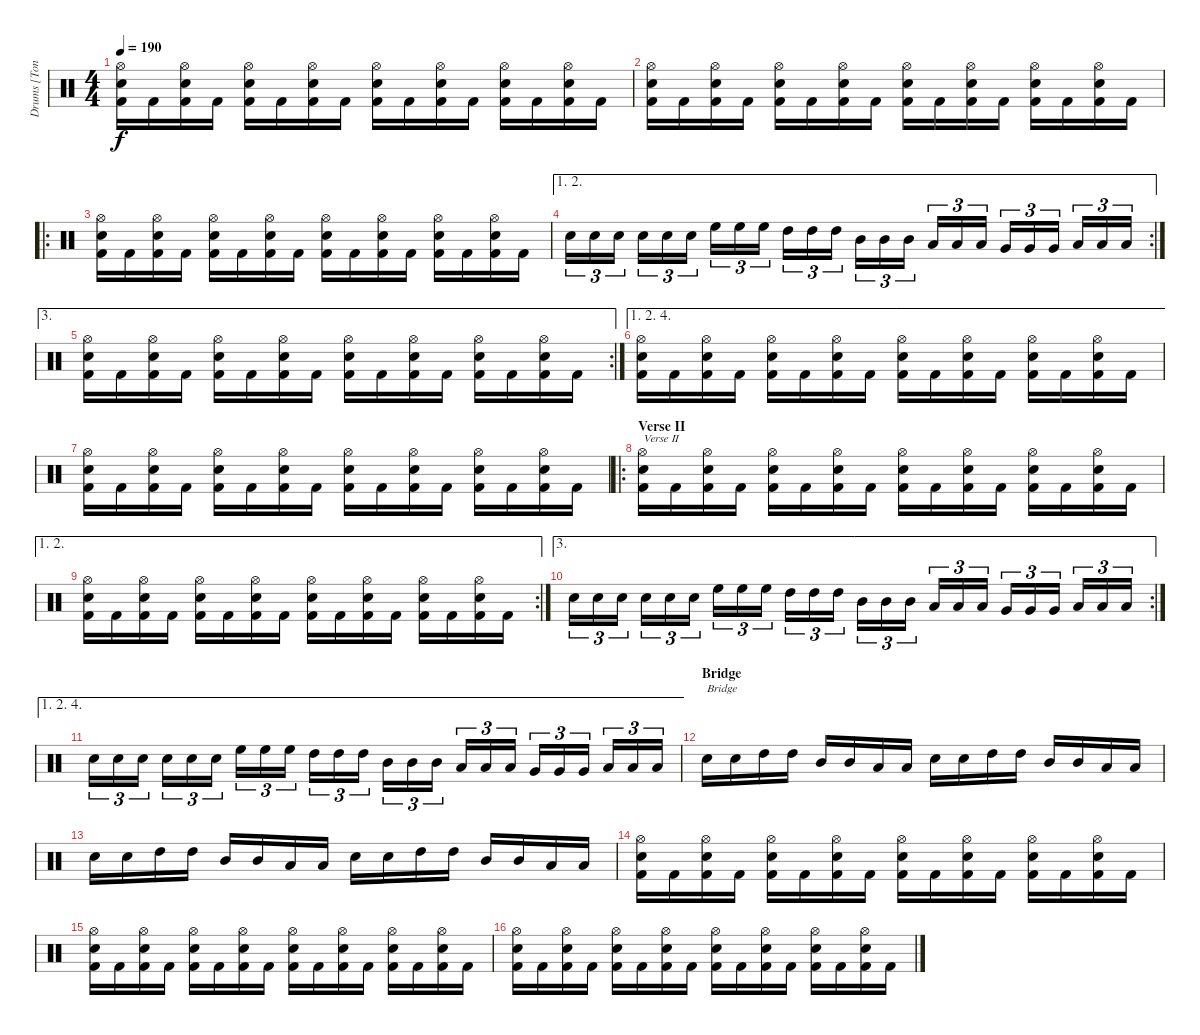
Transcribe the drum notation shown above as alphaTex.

\track ("Drums [Tony Laureano]" "Drums [Ton") {instrument percussion}
\staff {score}
\articulation defaults
\ts (4 4)
\tempo 190
\clef neutral
\ks c
("Hi-Hat (open)" "Electric Snare (hit)" "Kick (hit) 2").16{dy f} "Kick (hit) 2".16 ("Hi-Hat (open)" "Electric Snare (hit)" "Kick (hit) 2").16 "Kick (hit) 2".16 ("Hi-Hat (open)" "Electric Snare (hit)" "Kick (hit) 2").16 "Kick (hit) 2".16 ("Hi-Hat (open)" "Electric Snare (hit)" "Kick (hit) 2").16 "Kick (hit) 2".16 ("Hi-Hat (open)" "Electric Snare (hit)" "Kick (hit) 2").16 "Kick (hit) 2".16 ("Hi-Hat (open)" "Electric Snare (hit)" "Kick (hit) 2").16 "Kick (hit) 2".16 ("Hi-Hat (open)" "Electric Snare (hit)" "Kick (hit) 2").16 "Kick (hit) 2".16 ("Hi-Hat (open)" "Electric Snare (hit)" "Kick (hit) 2").16 "Kick (hit) 2".16 |
("Hi-Hat (open)" "Electric Snare (hit)" "Kick (hit) 2").16 "Kick (hit) 2".16 ("Hi-Hat (open)" "Electric Snare (hit)" "Kick (hit) 2").16 "Kick (hit) 2".16 ("Hi-Hat (open)" "Electric Snare (hit)" "Kick (hit) 2").16 "Kick (hit) 2".16 ("Hi-Hat (open)" "Electric Snare (hit)" "Kick (hit) 2").16 "Kick (hit) 2".16 ("Hi-Hat (open)" "Electric Snare (hit)" "Kick (hit) 2").16 "Kick (hit) 2".16 ("Hi-Hat (open)" "Electric Snare (hit)" "Kick (hit) 2").16 "Kick (hit) 2".16 ("Hi-Hat (open)" "Electric Snare (hit)" "Kick (hit) 2").16 "Kick (hit) 2".16 ("Hi-Hat (open)" "Electric Snare (hit)" "Kick (hit) 2").16 "Kick (hit) 2".16 |
\ro
("Hi-Hat (open)" "Electric Snare (hit)" "Kick (hit) 2").16 "Kick (hit) 2".16 ("Hi-Hat (open)" "Electric Snare (hit)" "Kick (hit) 2").16 "Kick (hit) 2".16 ("Hi-Hat (open)" "Electric Snare (hit)" "Kick (hit) 2").16 "Kick (hit) 2".16 ("Hi-Hat (open)" "Electric Snare (hit)" "Kick (hit) 2").16 "Kick (hit) 2".16 ("Hi-Hat (open)" "Electric Snare (hit)" "Kick (hit) 2").16 "Kick (hit) 2".16 ("Hi-Hat (open)" "Electric Snare (hit)" "Kick (hit) 2").16 "Kick (hit) 2".16 ("Hi-Hat (open)" "Electric Snare (hit)" "Kick (hit) 2").16 "Kick (hit) 2".16 ("Hi-Hat (open)" "Electric Snare (hit)" "Kick (hit) 2").16 "Kick (hit) 2".16 |
\ae (1 2)
\rc 2 "Electric Snare (hit)".16{tu (3 2)} "Electric Snare (hit)".16{tu (3 2)} "Electric Snare (hit)".16{tu (3 2)} "Electric Snare (hit)".16{tu (3 2)} "Electric Snare (hit)".16{tu (3 2)} "Electric Snare (hit)".16{tu (3 2)} "High Floor Tom (hit)".16{tu (3 2)} "High Floor Tom (hit)".16{tu (3 2)} "High Floor Tom (hit)".16{tu (3 2)} "High Tom (hit)".16{tu (3 2)} "High Tom (hit)".16{tu (3 2)} "High Tom (hit)".16{tu (3 2)} "Mid Tom (hit)".16{tu (3 2)} "Mid Tom (hit)".16{tu (3 2)} "Mid Tom (hit)".16{tu (3 2)} "Low Tom (hit)".16{tu (3 2)} "Low Tom (hit)".16{tu (3 2)} "Low Tom (hit)".16{tu (3 2)} "Very Low Tom (hit)".16{tu (3 2)} "Very Low Tom (hit)".16{tu (3 2)} "Very Low Tom (hit)".16{tu (3 2)} "Low Floor Tom (hit)".16{tu (3 2)} "Low Floor Tom (hit)".16{tu (3 2)} "Low Floor Tom (hit)".16{tu (3 2)}
|
\ae 3
\rc 2
("Hi-Hat (open)" "Electric Snare (hit)" "Kick (hit) 2").16 "Kick (hit) 2".16 ("Hi-Hat (open)" "Electric Snare (hit)" "Kick (hit) 2").16 "Kick (hit) 2".16 ("Hi-Hat (open)" "Electric Snare (hit)" "Kick (hit) 2").16 "Kick (hit) 2".16 ("Hi-Hat (open)" "Electric Snare (hit)" "Kick (hit) 2").16 "Kick (hit) 2".16 ("Hi-Hat (open)" "Electric Snare (hit)" "Kick (hit) 2").16 "Kick (hit) 2".16 ("Hi-Hat (open)" "Electric Snare (hit)" "Kick (hit) 2").16 "Kick (hit) 2".16 ("Hi-Hat (open)" "Electric Snare (hit)" "Kick (hit) 2").16 "Kick (hit) 2".16 ("Hi-Hat (open)" "Electric Snare (hit)" "Kick (hit) 2").16 "Kick (hit) 2".16 |
\ae (1 2 4)
("Hi-Hat (open)" "Electric Snare (hit)" "Kick (hit) 2").16 "Kick (hit) 2".16 ("Hi-Hat (open)" "Electric Snare (hit)" "Kick (hit) 2").16 "Kick (hit) 2".16 ("Hi-Hat (open)" "Electric Snare (hit)" "Kick (hit) 2").16 "Kick (hit) 2".16 ("Hi-Hat (open)" "Electric Snare (hit)" "Kick (hit) 2").16 "Kick (hit) 2".16 ("Hi-Hat (open)" "Electric Snare (hit)" "Kick (hit) 2").16 "Kick (hit) 2".16 ("Hi-Hat (open)" "Electric Snare (hit)" "Kick (hit) 2").16 "Kick (hit) 2".16 ("Hi-Hat (open)" "Electric Snare (hit)" "Kick (hit) 2").16 "Kick (hit) 2".16 ("Hi-Hat (open)" "Electric Snare (hit)" "Kick (hit) 2").16 "Kick (hit) 2".16 |
("Hi-Hat (open)" "Electric Snare (hit)" "Kick (hit) 2").16 "Kick (hit) 2".16 ("Hi-Hat (open)" "Electric Snare (hit)" "Kick (hit) 2").16 "Kick (hit) 2".16 ("Hi-Hat (open)" "Electric Snare (hit)" "Kick (hit) 2").16 "Kick (hit) 2".16 ("Hi-Hat (open)" "Electric Snare (hit)" "Kick (hit) 2").16 "Kick (hit) 2".16 ("Hi-Hat (open)" "Electric Snare (hit)" "Kick (hit) 2").16 "Kick (hit) 2".16 ("Hi-Hat (open)" "Electric Snare (hit)" "Kick (hit) 2").16 "Kick (hit) 2".16 ("Hi-Hat (open)" "Electric Snare (hit)" "Kick (hit) 2").16 "Kick (hit) 2".16 ("Hi-Hat (open)" "Electric Snare (hit)" "Kick (hit) 2").16 "Kick (hit) 2".16 |
\ro
\section ("" "Verse II")
("Hi-Hat (open)" "Electric Snare (hit)" "Kick (hit) 2").16{txt "Verse II"} "Kick (hit) 2".16 ("Hi-Hat (open)" "Electric Snare (hit)" "Kick (hit) 2").16 "Kick (hit) 2".16 ("Hi-Hat (open)" "Electric Snare (hit)" "Kick (hit) 2").16 "Kick (hit) 2".16 ("Hi-Hat (open)" "Electric Snare (hit)" "Kick (hit) 2").16 "Kick (hit) 2".16 ("Hi-Hat (open)" "Electric Snare (hit)" "Kick (hit) 2").16 "Kick (hit) 2".16 ("Hi-Hat (open)" "Electric Snare (hit)" "Kick (hit) 2").16 "Kick (hit) 2".16 ("Hi-Hat (open)" "Electric Snare (hit)" "Kick (hit) 2").16 "Kick (hit) 2".16 ("Hi-Hat (open)" "Electric Snare (hit)" "Kick (hit) 2").16 "Kick (hit) 2".16 |
\ae (1 2)
\rc 2
("Hi-Hat (open)" "Electric Snare (hit)" "Kick (hit) 2").16 "Kick (hit) 2".16 ("Hi-Hat (open)" "Electric Snare (hit)" "Kick (hit) 2").16 "Kick (hit) 2".16 ("Hi-Hat (open)" "Electric Snare (hit)" "Kick (hit) 2").16 "Kick (hit) 2".16 ("Hi-Hat (open)" "Electric Snare (hit)" "Kick (hit) 2").16 "Kick (hit) 2".16 ("Hi-Hat (open)" "Electric Snare (hit)" "Kick (hit) 2").16 "Kick (hit) 2".16 ("Hi-Hat (open)" "Electric Snare (hit)" "Kick (hit) 2").16 "Kick (hit) 2".16 ("Hi-Hat (open)" "Electric Snare (hit)" "Kick (hit) 2").16 "Kick (hit) 2".16 ("Hi-Hat (open)" "Electric Snare (hit)" "Kick (hit) 2").16 "Kick (hit) 2".16 |
\ae 3
\rc 2 "Electric Snare (hit)".16{tu (3 2)} "Electric Snare (hit)".16{tu (3 2)} "Electric Snare (hit)".16{tu (3 2)} "Electric Snare (hit)".16{tu (3 2)} "Electric Snare (hit)".16{tu (3 2)} "Electric Snare (hit)".16{tu (3 2)} "High Floor Tom (hit)".16{tu (3 2)} "High Floor Tom (hit)".16{tu (3 2)} "High Floor Tom (hit)".16{tu (3 2)} "High Tom (hit)".16{tu (3 2)} "High Tom (hit)".16{tu (3 2)} "High Tom (hit)".16{tu (3 2)} "Mid Tom (hit)".16{tu (3 2)} "Mid Tom (hit)".16{tu (3 2)} "Mid Tom (hit)".16{tu (3 2)} "Low Tom (hit)".16{tu (3 2)} "Low Tom (hit)".16{tu (3 2)} "Low Tom (hit)".16{tu (3 2)} "Very Low Tom (hit)".16{tu (3 2)} "Very Low Tom (hit)".16{tu (3 2)} "Very Low Tom (hit)".16{tu (3 2)} "Low Floor Tom (hit)".16{tu (3 2)} "Low Floor Tom (hit)".16{tu (3 2)} "Low Floor Tom (hit)".16{tu (3 2)}
|
\ae (1 2 4)
"Electric Snare (hit)".16{tu (3 2)} "Electric Snare (hit)".16{tu (3 2)} "Electric Snare (hit)".16{tu (3 2)} "Electric Snare (hit)".16{tu (3 2)} "Electric Snare (hit)".16{tu (3 2)} "Electric Snare (hit)".16{tu (3 2)} "High Floor Tom (hit)".16{tu (3 2)} "High Floor Tom (hit)".16{tu (3 2)} "High Floor Tom (hit)".16{tu (3 2)} "High Tom (hit)".16{tu (3 2)} "High Tom (hit)".16{tu (3 2)} "High Tom (hit)".16{tu (3 2)} "Mid Tom (hit)".16{tu (3 2)} "Mid Tom (hit)".16{tu (3 2)} "Mid Tom (hit)".16{tu (3 2)} "Low Tom (hit)".16{tu (3 2)} "Low Tom (hit)".16{tu (3 2)} "Low Tom (hit)".16{tu (3 2)} "Very Low Tom (hit)".16{tu (3 2)} "Very Low Tom (hit)".16{tu (3 2)} "Very Low Tom (hit)".16{tu (3 2)} "Low Floor Tom (hit)".16{tu (3 2)} "Low Floor Tom (hit)".16{tu (3 2)} "Low Floor Tom (hit)".16{tu (3 2)} |
\section ("" "Bridge")
"Electric Snare (hit)".16{txt "Bridge"} "Electric Snare (hit)".16 "High Tom (hit)".16 "High Tom (hit)".16 "Mid Tom (hit)".16 "Mid Tom (hit)".16 "Low Tom (hit)".16 "Low Tom (hit)".16 "Electric Snare (hit)".16 "Electric Snare (hit)".16 "High Tom (hit)".16 "High Tom (hit)".16 "Mid Tom (hit)".16 "Mid Tom (hit)".16 "Low Tom (hit)".16 "Low Tom (hit)".16 |
"Electric Snare (hit)".16 "Electric Snare (hit)".16 "High Tom (hit)".16 "High Tom (hit)".16 "Mid Tom (hit)".16 "Mid Tom (hit)".16 "Low Tom (hit)".16 "Low Tom (hit)".16 "Electric Snare (hit)".16 "Electric Snare (hit)".16 "High Tom (hit)".16 "High Tom (hit)".16 "Mid Tom (hit)".16 "Mid Tom (hit)".16 "Low Tom (hit)".16 "Low Tom (hit)".16 |
("Hi-Hat (open)" "Electric Snare (hit)" "Kick (hit) 2").16 "Kick (hit) 2".16 ("Hi-Hat (open)" "Electric Snare (hit)" "Kick (hit) 2").16 "Kick (hit) 2".16 ("Hi-Hat (open)" "Electric Snare (hit)" "Kick (hit) 2").16 "Kick (hit) 2".16 ("Hi-Hat (open)" "Electric Snare (hit)" "Kick (hit) 2").16 "Kick (hit) 2".16 ("Hi-Hat (open)" "Electric Snare (hit)" "Kick (hit) 2").16 "Kick (hit) 2".16 ("Hi-Hat (open)" "Electric Snare (hit)" "Kick (hit) 2").16 "Kick (hit) 2".16 ("Hi-Hat (open)" "Electric Snare (hit)" "Kick (hit) 2").16 "Kick (hit) 2".16 ("Hi-Hat (open)" "Electric Snare (hit)" "Kick (hit) 2").16 "Kick (hit) 2".16 |
("Hi-Hat (open)" "Electric Snare (hit)" "Kick (hit) 2").16 "Kick (hit) 2".16 ("Hi-Hat (open)" "Electric Snare (hit)" "Kick (hit) 2").16 "Kick (hit) 2".16 ("Hi-Hat (open)" "Electric Snare (hit)" "Kick (hit) 2").16 "Kick (hit) 2".16 ("Hi-Hat (open)" "Electric Snare (hit)" "Kick (hit) 2").16 "Kick (hit) 2".16 ("Hi-Hat (open)" "Electric Snare (hit)" "Kick (hit) 2").16 "Kick (hit) 2".16 ("Hi-Hat (open)" "Electric Snare (hit)" "Kick (hit) 2").16 "Kick (hit) 2".16 ("Hi-Hat (open)" "Electric Snare (hit)" "Kick (hit) 2").16 "Kick (hit) 2".16 ("Hi-Hat (open)" "Electric Snare (hit)" "Kick (hit) 2").16 "Kick (hit) 2".16 |
("Hi-Hat (open)" "Electric Snare (hit)" "Kick (hit) 2").16 "Kick (hit) 2".16 ("Hi-Hat (open)" "Electric Snare (hit)" "Kick (hit) 2").16 "Kick (hit) 2".16 ("Hi-Hat (open)" "Electric Snare (hit)" "Kick (hit) 2").16 "Kick (hit) 2".16 ("Hi-Hat (open)" "Electric Snare (hit)" "Kick (hit) 2").16 "Kick (hit) 2".16 ("Hi-Hat (open)" "Electric Snare (hit)" "Kick (hit) 2").16 "Kick (hit) 2".16 ("Hi-Hat (open)" "Electric Snare (hit)" "Kick (hit) 2").16 "Kick (hit) 2".16 ("Hi-Hat (open)" "Electric Snare (hit)" "Kick (hit) 2").16 "Kick (hit) 2".16 ("Hi-Hat (open)" "Electric Snare (hit)" "Kick (hit) 2").16 "Kick (hit) 2".16
